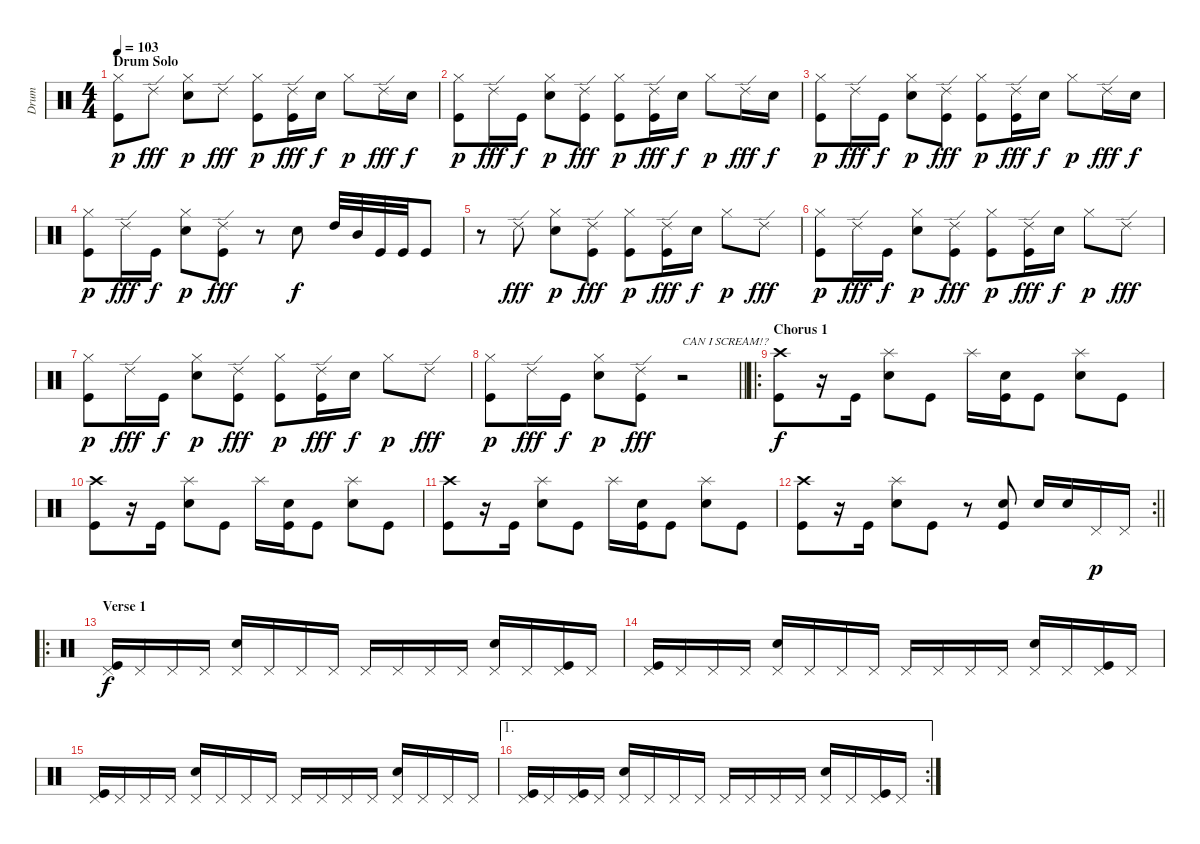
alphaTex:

\track ("Drum" "Drum") {instrument percussion}
\staff {score}
\articulation defaults
\ts (4 4)
\section ("" "Drum Solo")
\tempo 103
\clef neutral
\ks c
("Hi-Hat (closed)" "Kick (hit)").8{dy p} "Ride (edge) 2".8{dy fff} ("Hi-Hat (closed)" "Snare (hit) 2").8{dy p} "Ride (edge) 2".8{dy fff} ("Hi-Hat (closed)" "Kick (hit)").8{dy p} ("Ride (edge) 2" "Kick (hit)").16{dy fff} "Snare (hit) 2".16{dy f} "Hi-Hat (closed)".8{dy p} "Ride (edge) 2".16{dy fff} "Snare (hit) 2".16{dy f} |
("Hi-Hat (closed)" "Kick (hit)").8{dy p} "Ride (edge) 2".16{dy fff} "Kick (hit)".16{dy f} ("Hi-Hat (closed)" "Snare (hit) 2").8{dy p} ("Ride (edge) 2" "Kick (hit)").8{dy fff} ("Hi-Hat (closed)" "Kick (hit)").8{dy p} ("Ride (edge) 2" "Kick (hit)").16{dy fff} "Snare (hit) 2".16{dy f} "Hi-Hat (closed)".8{dy p} "Ride (edge) 2".16{dy fff} "Snare (hit) 2".16{dy f} |
("Hi-Hat (closed)" "Kick (hit)").8{dy p} "Ride (edge) 2".16{dy fff} "Kick (hit)".16{dy f} ("Hi-Hat (closed)" "Snare (hit) 2").8{dy p} ("Ride (edge) 2" "Kick (hit)").8{dy fff} ("Hi-Hat (closed)" "Kick (hit)").8{dy p} ("Ride (edge) 2" "Kick (hit)").16{dy fff} "Snare (hit) 2".16{dy f} "Hi-Hat (closed)".8{dy p} "Ride (edge) 2".16{dy fff} "Snare (hit) 2".16{dy f} |
("Hi-Hat (closed)" "Kick (hit)").8{dy p} "Ride (edge) 2".16{dy fff} "Kick (hit)".16{dy f} ("Hi-Hat (closed)" "Snare (hit) 2").8{dy p} ("Ride (edge) 2" "Kick (hit)").8{dy fff} r.8 "Snare (hit) 2".8{dy f} "High Tom (hit)".32 "Mid Tom (hit)".32 "Kick (hit)".32 "Kick (hit)".32 "Kick (hit)".8 |
r.8 "Ride (edge) 2".8{dy fff} ("Hi-Hat (closed)" "Snare (hit) 2").8{dy p} ("Ride (edge) 2" "Kick (hit)").8{dy fff} ("Hi-Hat (closed)" "Kick (hit)").8{dy p} ("Ride (edge) 2" "Kick (hit)").16{dy fff} "Snare (hit) 2".16{dy f} "Hi-Hat (closed)".8{dy p} "Ride (edge) 2".8{dy fff} |
("Hi-Hat (closed)" "Kick (hit)").8{dy p} "Ride (edge) 2".16{dy fff} "Kick (hit)".16{dy f} ("Hi-Hat (closed)" "Snare (hit) 2").8{dy p} ("Ride (edge) 2" "Kick (hit)").8{dy fff} ("Hi-Hat (closed)" "Kick (hit)").8{dy p} ("Ride (edge) 2" "Kick (hit)").16{dy fff} "Snare (hit) 2".16{dy f} "Hi-Hat (closed)".8{dy p} "Ride (edge) 2".8{dy fff} |
("Hi-Hat (closed)" "Kick (hit)").8{dy p} "Ride (edge) 2".16{dy fff} "Kick (hit)".16{dy f} ("Hi-Hat (closed)" "Snare (hit) 2").8{dy p} ("Ride (edge) 2" "Kick (hit)").8{dy fff} ("Hi-Hat (closed)" "Kick (hit)").8{dy p} ("Ride (edge) 2" "Kick (hit)").16{dy fff} "Snare (hit) 2".16{dy f} "Hi-Hat (closed)".8{dy p} "Ride (edge) 2".8{dy fff} |
\barLineRight lightlight
("Hi-Hat (closed)" "Kick (hit)").8{dy p} "Ride (edge) 2".16{dy fff} "Kick (hit)".16{dy f} ("Hi-Hat (closed)" "Snare (hit) 2").8{dy p} ("Ride (edge) 2" "Kick (hit)").8{dy fff} r.2{txt "CAN I SCREAM!?"} |
\ro
\section ("" "Chorus 1")
("Crash high (hit)" "Kick (hit)").8{dy f} r.16 "Kick (hit)".16 ("Splash (hit)" "Snare (hit) 2").8 "Kick (hit)".8 "Splash (hit)".16 ("Snare (hit) 2" "Kick (hit)").16 "Kick (hit)".8 ("Splash (hit)" "Snare (hit) 2").8 "Kick (hit)".8 |
("Crash high (hit)" "Kick (hit)").8 r.16 "Kick (hit)".16 ("Splash (hit)" "Snare (hit) 2").8 "Kick (hit)".8 "Splash (hit)".16 ("Snare (hit) 2" "Kick (hit)").16 "Kick (hit)".8 ("Splash (hit)" "Snare (hit) 2").8 "Kick (hit)".8 |
("Crash high (hit)" "Kick (hit)").8 r.16 "Kick (hit)".16 ("Splash (hit)" "Snare (hit) 2").8 "Kick (hit)".8 "Splash (hit)".16 ("Snare (hit) 2" "Kick (hit)").16 "Kick (hit)".8 ("Splash (hit)" "Snare (hit) 2").8 "Kick (hit)".8 |
\rc 2
\barLineRight lightlight
("Crash high (hit)" "Kick (hit)").8 r.16 "Kick (hit)".16 ("Splash (hit)" "Snare (hit) 2").8 "Kick (hit)".8 r.8 ("Snare (hit) 2" "Kick (hit)").8 "Snare (hit) 2".16 "Snare (hit) 2".16 "Pedal Hi-Hat (hit)".16{dy p} "Pedal Hi-Hat (hit)".16 |
\ro
\section ("" "Verse 1")
("Pedal Hi-Hat (hit)" "Kick (hit)").16{dy f} "Pedal Hi-Hat (hit)".16 "Pedal Hi-Hat (hit)".16 "Pedal Hi-Hat (hit)".16 ("Pedal Hi-Hat (hit)" "Snare (hit) 2").16 "Pedal Hi-Hat (hit)".16 "Pedal Hi-Hat (hit)".16 "Pedal Hi-Hat (hit)".16 "Pedal Hi-Hat (hit)".16 "Pedal Hi-Hat (hit)".16 "Pedal Hi-Hat (hit)".16 "Pedal Hi-Hat (hit)".16 ("Pedal Hi-Hat (hit)" "Snare (hit) 2").16 "Pedal Hi-Hat (hit)".16 ("Pedal Hi-Hat (hit)" "Kick (hit)").16 "Pedal Hi-Hat (hit)".16 |
("Pedal Hi-Hat (hit)" "Kick (hit)").16 "Pedal Hi-Hat (hit)".16 "Pedal Hi-Hat (hit)".16 "Pedal Hi-Hat (hit)".16 ("Pedal Hi-Hat (hit)" "Snare (hit) 2").16 "Pedal Hi-Hat (hit)".16 "Pedal Hi-Hat (hit)".16 "Pedal Hi-Hat (hit)".16 "Pedal Hi-Hat (hit)".16 "Pedal Hi-Hat (hit)".16 "Pedal Hi-Hat (hit)".16 "Pedal Hi-Hat (hit)".16 ("Pedal Hi-Hat (hit)" "Snare (hit) 2").16 "Pedal Hi-Hat (hit)".16 ("Pedal Hi-Hat (hit)" "Kick (hit)").16 "Pedal Hi-Hat (hit)".16 |
("Pedal Hi-Hat (hit)" "Kick (hit)").16 "Pedal Hi-Hat (hit)".16 "Pedal Hi-Hat (hit)".16 "Pedal Hi-Hat (hit)".16 ("Pedal Hi-Hat (hit)" "Snare (hit) 2").16 "Pedal Hi-Hat (hit)".16 "Pedal Hi-Hat (hit)".16 "Pedal Hi-Hat (hit)".16 "Pedal Hi-Hat (hit)".16 "Pedal Hi-Hat (hit)".16 "Pedal Hi-Hat (hit)".16 "Pedal Hi-Hat (hit)".16 ("Pedal Hi-Hat (hit)" "Snare (hit) 2").16 "Pedal Hi-Hat (hit)".16 "Pedal Hi-Hat (hit)".16 "Pedal Hi-Hat (hit)".16 |
\ae 1
\rc 2
("Pedal Hi-Hat (hit)" "Kick (hit)").16 "Pedal Hi-Hat (hit)".16 ("Pedal Hi-Hat (hit)" "Kick (hit)").16 "Pedal Hi-Hat (hit)".16 ("Pedal Hi-Hat (hit)" "Snare (hit) 2").16 "Pedal Hi-Hat (hit)".16 "Pedal Hi-Hat (hit)".16 "Pedal Hi-Hat (hit)".16 "Pedal Hi-Hat (hit)".16 "Pedal Hi-Hat (hit)".16 "Pedal Hi-Hat (hit)".16 "Pedal Hi-Hat (hit)".16 ("Pedal Hi-Hat (hit)" "Snare (hit) 2").16 "Pedal Hi-Hat (hit)".16 ("Pedal Hi-Hat (hit)" "Kick (hit)").16 "Pedal Hi-Hat (hit)".16
